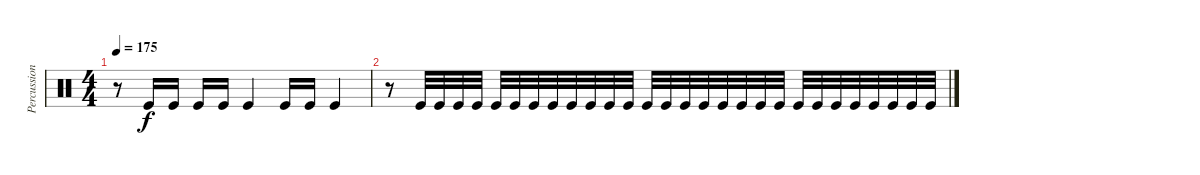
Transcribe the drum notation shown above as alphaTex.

\track ("Percussion" "Percussion") {instrument percussion}
\staff {score}
\articulation defaults
\ts (4 4)
\tempo 175
\clef neutral
\ks c
r.8{dy f} "Kick (hit)".16 "Kick (hit)".16 "Kick (hit)".16 "Kick (hit)".16 "Kick (hit)".4 "Kick (hit)".16 "Kick (hit)".16 "Kick (hit)".4 |
r.8 "Kick (hit)".32 "Kick (hit)".32 "Kick (hit)".32 "Kick (hit)".32 "Kick (hit)".32 "Kick (hit)".32 "Kick (hit)".32 "Kick (hit)".32 "Kick (hit)".32 "Kick (hit)".32 "Kick (hit)".32 "Kick (hit)".32 "Kick (hit)".32 "Kick (hit)".32 "Kick (hit)".32 "Kick (hit)".32 "Kick (hit)".32 "Kick (hit)".32 "Kick (hit)".32 "Kick (hit)".32 "Kick (hit)".32 "Kick (hit)".32 "Kick (hit)".32 "Kick (hit)".32 "Kick (hit)".32 "Kick (hit)".32 "Kick (hit)".32 "Kick (hit)".32
